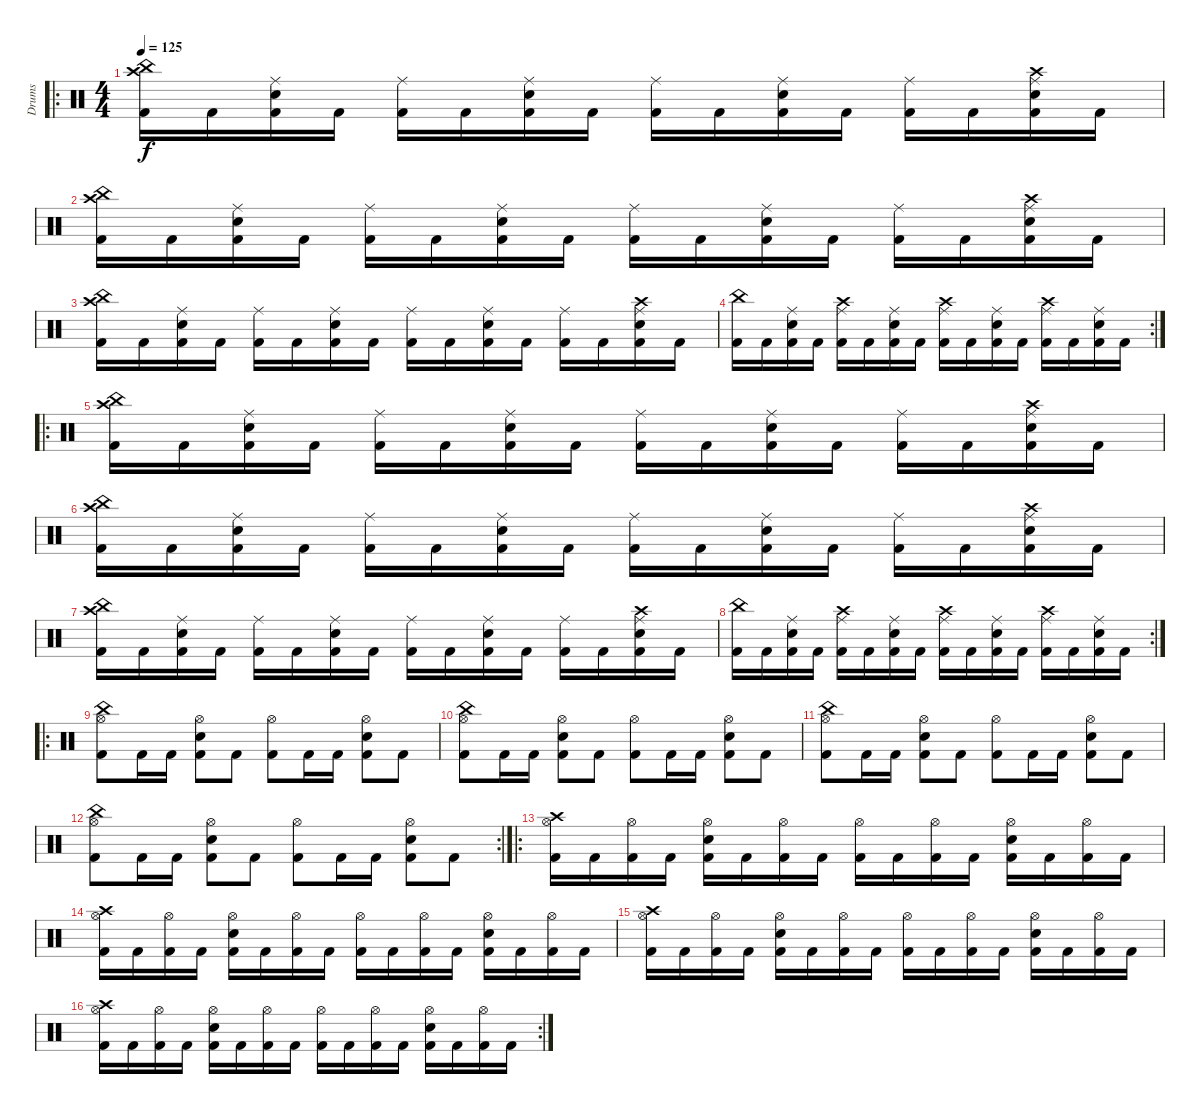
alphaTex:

\track ("Drums" "Drums") {instrument percussion}
\staff {score}
\articulation defaults
\ro
\ts (4 4)
\tempo 125
\clef neutral
\ks c
("China (hit)" "Crash high (hit)" "Kick (hit) 2").16{dy f} "Kick (hit) 2".16 ("Ride (middle)" "Snare (hit) 2" "Kick (hit) 2").16 "Kick (hit) 2".16 ("Ride (middle)" "Kick (hit) 2").16 "Kick (hit) 2".16 ("Ride (middle)" "Snare (hit) 2" "Kick (hit) 2").16 "Kick (hit) 2".16 ("Ride (middle)" "Kick (hit) 2").16 "Kick (hit) 2".16 ("Ride (middle)" "Snare (hit) 2" "Kick (hit) 2").16 "Kick (hit) 2".16 ("Ride (middle)" "Kick (hit) 2").16 "Kick (hit) 2".16 ("Ride (middle)" "Crash high (hit)" "Snare (hit) 2" "Kick (hit) 2").16 "Kick (hit) 2".16 |
("China (hit)" "Crash high (hit)" "Kick (hit) 2").16 "Kick (hit) 2".16 ("Ride (middle)" "Snare (hit) 2" "Kick (hit) 2").16 "Kick (hit) 2".16 ("Ride (middle)" "Kick (hit) 2").16 "Kick (hit) 2".16 ("Ride (middle)" "Snare (hit) 2" "Kick (hit) 2").16 "Kick (hit) 2".16 ("Ride (middle)" "Kick (hit) 2").16 "Kick (hit) 2".16 ("Ride (middle)" "Snare (hit) 2" "Kick (hit) 2").16 "Kick (hit) 2".16 ("Ride (middle)" "Kick (hit) 2").16 "Kick (hit) 2".16 ("Ride (middle)" "Crash high (hit)" "Snare (hit) 2" "Kick (hit) 2").16 "Kick (hit) 2".16 |
("China (hit)" "Crash high (hit)" "Kick (hit) 2").16 "Kick (hit) 2".16 ("Ride (middle)" "Snare (hit) 2" "Kick (hit) 2").16 "Kick (hit) 2".16 ("Ride (middle)" "Kick (hit) 2").16 "Kick (hit) 2".16 ("Ride (middle)" "Snare (hit) 2" "Kick (hit) 2").16 "Kick (hit) 2".16 ("Ride (middle)" "Kick (hit) 2").16 "Kick (hit) 2".16 ("Ride (middle)" "Snare (hit) 2" "Kick (hit) 2").16 "Kick (hit) 2".16 ("Ride (middle)" "Kick (hit) 2").16 "Kick (hit) 2".16 ("Ride (middle)" "Crash high (hit)" "Snare (hit) 2" "Kick (hit) 2").16 "Kick (hit) 2".16 |
\rc 2
("China (hit)" "Kick (hit) 2").16 "Kick (hit) 2".16 ("Ride (middle)" "Snare (hit) 2" "Kick (hit) 2").16 "Kick (hit) 2".16 ("Ride (middle)" "Crash high (hit)" "Kick (hit) 2").16 "Kick (hit) 2".16 ("Ride (middle)" "Snare (hit) 2" "Kick (hit) 2").16 "Kick (hit) 2".16 ("Ride (middle)" "Crash high (hit)" "Kick (hit) 2").16 "Kick (hit) 2".16 ("Ride (middle)" "Snare (hit) 2" "Kick (hit) 2").16 "Kick (hit) 2".16 ("Ride (middle)" "Crash high (hit)" "Kick (hit) 2").16 "Kick (hit) 2".16 ("Ride (middle)" "Snare (hit) 2" "Kick (hit) 2").16 "Kick (hit) 2".16 |
\ro
("China (hit)" "Crash high (hit)" "Kick (hit) 2").16 "Kick (hit) 2".16 ("Ride (middle)" "Snare (hit) 2" "Kick (hit) 2").16 "Kick (hit) 2".16 ("Ride (middle)" "Kick (hit) 2").16 "Kick (hit) 2".16 ("Ride (middle)" "Snare (hit) 2" "Kick (hit) 2").16 "Kick (hit) 2".16 ("Ride (middle)" "Kick (hit) 2").16 "Kick (hit) 2".16 ("Ride (middle)" "Snare (hit) 2" "Kick (hit) 2").16 "Kick (hit) 2".16 ("Ride (middle)" "Kick (hit) 2").16 "Kick (hit) 2".16 ("Ride (middle)" "Crash high (hit)" "Snare (hit) 2" "Kick (hit) 2").16 "Kick (hit) 2".16 |
("China (hit)" "Crash high (hit)" "Kick (hit) 2").16 "Kick (hit) 2".16 ("Ride (middle)" "Snare (hit) 2" "Kick (hit) 2").16 "Kick (hit) 2".16 ("Ride (middle)" "Kick (hit) 2").16 "Kick (hit) 2".16 ("Ride (middle)" "Snare (hit) 2" "Kick (hit) 2").16 "Kick (hit) 2".16 ("Ride (middle)" "Kick (hit) 2").16 "Kick (hit) 2".16 ("Ride (middle)" "Snare (hit) 2" "Kick (hit) 2").16 "Kick (hit) 2".16 ("Ride (middle)" "Kick (hit) 2").16 "Kick (hit) 2".16 ("Ride (middle)" "Crash high (hit)" "Snare (hit) 2" "Kick (hit) 2").16 "Kick (hit) 2".16 |
("China (hit)" "Crash high (hit)" "Kick (hit) 2").16 "Kick (hit) 2".16 ("Ride (middle)" "Snare (hit) 2" "Kick (hit) 2").16 "Kick (hit) 2".16 ("Ride (middle)" "Kick (hit) 2").16 "Kick (hit) 2".16 ("Ride (middle)" "Snare (hit) 2" "Kick (hit) 2").16 "Kick (hit) 2".16 ("Ride (middle)" "Kick (hit) 2").16 "Kick (hit) 2".16 ("Ride (middle)" "Snare (hit) 2" "Kick (hit) 2").16 "Kick (hit) 2".16 ("Ride (middle)" "Kick (hit) 2").16 "Kick (hit) 2".16 ("Ride (middle)" "Crash high (hit)" "Snare (hit) 2" "Kick (hit) 2").16 "Kick (hit) 2".16 |
\rc 2
("China (hit)" "Kick (hit) 2").16 "Kick (hit) 2".16 ("Ride (middle)" "Snare (hit) 2" "Kick (hit) 2").16 "Kick (hit) 2".16 ("Ride (middle)" "Crash high (hit)" "Kick (hit) 2").16 "Kick (hit) 2".16 ("Ride (middle)" "Snare (hit) 2" "Kick (hit) 2").16 "Kick (hit) 2".16 ("Ride (middle)" "Crash high (hit)" "Kick (hit) 2").16 "Kick (hit) 2".16 ("Ride (middle)" "Snare (hit) 2" "Kick (hit) 2").16 "Kick (hit) 2".16 ("Ride (middle)" "Crash high (hit)" "Kick (hit) 2").16 "Kick (hit) 2".16 ("Ride (middle)" "Snare (hit) 2" "Kick (hit) 2").16 "Kick (hit) 2".16 |
\ro
("Hi-Hat (open)" "China (hit)" "Kick (hit) 2").8 "Kick (hit) 2".16 "Kick (hit) 2".16 ("Hi-Hat (open)" "Snare (hit) 2" "Kick (hit) 2").8 "Kick (hit) 2".8 ("Hi-Hat (open)" "Kick (hit) 2").8 "Kick (hit) 2".16 "Kick (hit) 2".16 ("Hi-Hat (open)" "Snare (hit) 2" "Kick (hit) 2").8 "Kick (hit) 2".8 |
("Hi-Hat (open)" "China (hit)" "Kick (hit) 2").8 "Kick (hit) 2".16 "Kick (hit) 2".16 ("Hi-Hat (open)" "Snare (hit) 2" "Kick (hit) 2").8 "Kick (hit) 2".8 ("Hi-Hat (open)" "Kick (hit) 2").8 "Kick (hit) 2".16 "Kick (hit) 2".16 ("Hi-Hat (open)" "Snare (hit) 2" "Kick (hit) 2").8 "Kick (hit) 2".8 |
("Hi-Hat (open)" "China (hit)" "Kick (hit) 2").8 "Kick (hit) 2".16 "Kick (hit) 2".16 ("Hi-Hat (open)" "Snare (hit) 2" "Kick (hit) 2").8 "Kick (hit) 2".8 ("Hi-Hat (open)" "Kick (hit) 2").8 "Kick (hit) 2".16 "Kick (hit) 2".16 ("Hi-Hat (open)" "Snare (hit) 2" "Kick (hit) 2").8 "Kick (hit) 2".8 |
\rc 2
("Hi-Hat (open)" "China (hit)" "Kick (hit) 2").8 "Kick (hit) 2".16 "Kick (hit) 2".16 ("Hi-Hat (open)" "Snare (hit) 2" "Kick (hit) 2").8 "Kick (hit) 2".8 ("Hi-Hat (open)" "Kick (hit) 2").8 "Kick (hit) 2".16 "Kick (hit) 2".16 ("Hi-Hat (open)" "Snare (hit) 2" "Kick (hit) 2").8 "Kick (hit) 2".8 |
\ro
("Crash high (hit)" "Hi-Hat (open)" "Kick (hit) 2").16 "Kick (hit) 2".16 ("Hi-Hat (open)" "Kick (hit) 2").16 "Kick (hit) 2".16 ("Hi-Hat (open)" "Snare (hit) 2" "Kick (hit) 2").16 "Kick (hit) 2".16 ("Hi-Hat (open)" "Kick (hit) 2").16 "Kick (hit) 2".16 ("Hi-Hat (open)" "Kick (hit) 2").16 "Kick (hit) 2".16 ("Hi-Hat (open)" "Kick (hit) 2").16 "Kick (hit) 2".16 ("Hi-Hat (open)" "Snare (hit) 2" "Kick (hit) 2").16 "Kick (hit) 2".16 ("Hi-Hat (open)" "Kick (hit) 2").16 "Kick (hit) 2".16 |
("Crash high (hit)" "Hi-Hat (open)" "Kick (hit) 2").16 "Kick (hit) 2".16 ("Hi-Hat (open)" "Kick (hit) 2").16 "Kick (hit) 2".16 ("Hi-Hat (open)" "Snare (hit) 2" "Kick (hit) 2").16 "Kick (hit) 2".16 ("Hi-Hat (open)" "Kick (hit) 2").16 "Kick (hit) 2".16 ("Hi-Hat (open)" "Kick (hit) 2").16 "Kick (hit) 2".16 ("Hi-Hat (open)" "Kick (hit) 2").16 "Kick (hit) 2".16 ("Hi-Hat (open)" "Snare (hit) 2" "Kick (hit) 2").16 "Kick (hit) 2".16 ("Hi-Hat (open)" "Kick (hit) 2").16 "Kick (hit) 2".16 |
("Crash high (hit)" "Hi-Hat (open)" "Kick (hit) 2").16 "Kick (hit) 2".16 ("Hi-Hat (open)" "Kick (hit) 2").16 "Kick (hit) 2".16 ("Hi-Hat (open)" "Snare (hit) 2" "Kick (hit) 2").16 "Kick (hit) 2".16 ("Hi-Hat (open)" "Kick (hit) 2").16 "Kick (hit) 2".16 ("Hi-Hat (open)" "Kick (hit) 2").16 "Kick (hit) 2".16 ("Hi-Hat (open)" "Kick (hit) 2").16 "Kick (hit) 2".16 ("Hi-Hat (open)" "Snare (hit) 2" "Kick (hit) 2").16 "Kick (hit) 2".16 ("Hi-Hat (open)" "Kick (hit) 2").16 "Kick (hit) 2".16 |
\rc 2
("Crash high (hit)" "Hi-Hat (open)" "Kick (hit) 2").16 "Kick (hit) 2".16 ("Hi-Hat (open)" "Kick (hit) 2").16 "Kick (hit) 2".16 ("Hi-Hat (open)" "Snare (hit) 2" "Kick (hit) 2").16 "Kick (hit) 2".16 ("Hi-Hat (open)" "Kick (hit) 2").16 "Kick (hit) 2".16 ("Hi-Hat (open)" "Kick (hit) 2").16 "Kick (hit) 2".16 ("Hi-Hat (open)" "Kick (hit) 2").16 "Kick (hit) 2".16 ("Hi-Hat (open)" "Snare (hit) 2" "Kick (hit) 2").16 "Kick (hit) 2".16 ("Hi-Hat (open)" "Kick (hit) 2").16 "Kick (hit) 2".16
